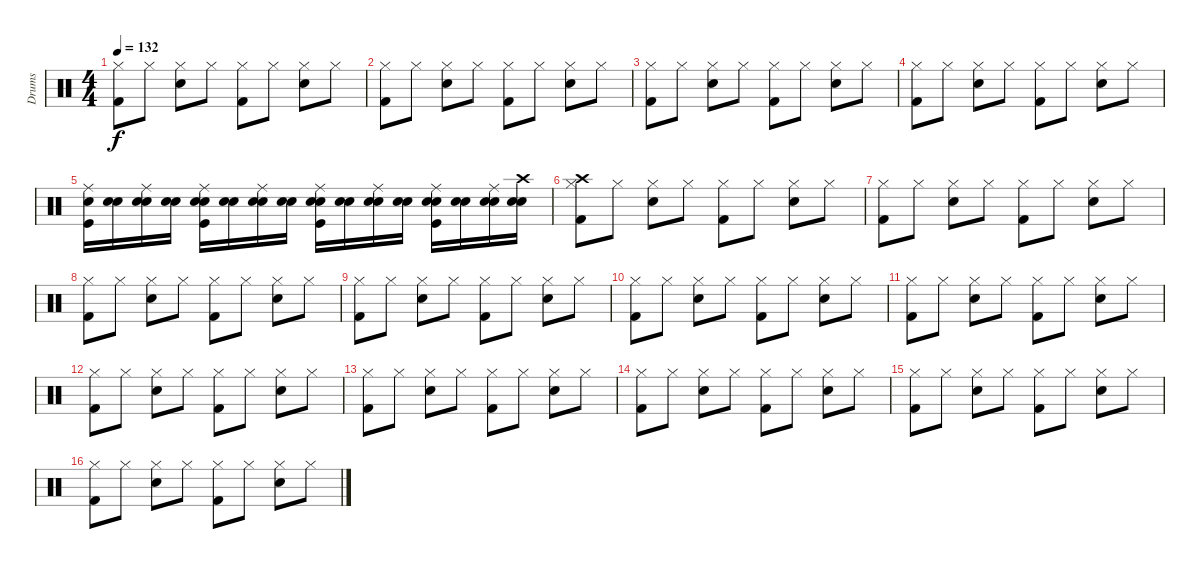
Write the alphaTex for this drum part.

\track ("Drums" "Drums") {instrument percussion}
\staff {score}
\articulation defaults
\ts (4 4)
\tempo 132
\clef neutral
\ks c
("Hi-Hat (closed)" "Kick (hit) 2").8{dy f} "Hi-Hat (closed)".8 ("Hi-Hat (closed)" "Snare (hit) 2").8 "Hi-Hat (closed)".8 ("Hi-Hat (closed)" "Kick (hit) 2").8 "Hi-Hat (closed)".8 ("Hi-Hat (closed)" "Snare (hit) 2").8 "Hi-Hat (closed)".8 |
("Hi-Hat (closed)" "Kick (hit) 2").8 "Hi-Hat (closed)".8 ("Hi-Hat (closed)" "Snare (hit) 2").8 "Hi-Hat (closed)".8 ("Hi-Hat (closed)" "Kick (hit) 2").8 "Hi-Hat (closed)".8 ("Hi-Hat (closed)" "Snare (hit) 2").8 "Hi-Hat (closed)".8 |
("Hi-Hat (closed)" "Kick (hit) 2").8 "Hi-Hat (closed)".8 ("Hi-Hat (closed)" "Snare (hit) 2").8 "Hi-Hat (closed)".8 ("Hi-Hat (closed)" "Kick (hit) 2").8 "Hi-Hat (closed)".8 ("Hi-Hat (closed)" "Snare (hit) 2").8 "Hi-Hat (closed)".8 |
("Hi-Hat (closed)" "Kick (hit) 2").8 "Hi-Hat (closed)".8 ("Hi-Hat (closed)" "Snare (hit) 2").8 "Hi-Hat (closed)".8 ("Hi-Hat (closed)" "Kick (hit) 2").8 "Hi-Hat (closed)".8 ("Hi-Hat (closed)" "Snare (hit) 2").8 "Hi-Hat (closed)".8 |
("Snare (hit) 2" "Kick (hit)" "Ride (middle)").16 ("Snare (hit)" "Snare (hit) 2").16 ("Snare (hit)" "Snare (hit) 2" "Ride (middle)").16 ("Snare (hit)" "Snare (hit) 2").16 ("Snare (hit)" "Snare (hit) 2" "Kick (hit)" "Ride (middle)").16 ("Snare (hit)" "Snare (hit) 2").16 ("Snare (hit)" "Snare (hit) 2" "Ride (middle)").16 ("Snare (hit)" "Snare (hit) 2").16 ("Snare (hit)" "Snare (hit) 2" "Kick (hit)" "Ride (middle)").16 ("Snare (hit)" "Snare (hit) 2").16 ("Snare (hit)" "Snare (hit) 2" "Ride (middle)").16 ("Snare (hit)" "Snare (hit) 2").16 ("Snare (hit)" "Snare (hit) 2" "Kick (hit)" "Ride (middle)").16 ("Snare (hit)" "Snare (hit) 2").16 ("Snare (hit)" "Snare (hit) 2" "Ride (middle)").16 ("Snare (hit)" "Snare (hit) 2" "Crash high (hit)").16 |
("Hi-Hat (closed)" "Crash high (hit)" "Kick (hit) 2").8 "Hi-Hat (closed)".8 ("Hi-Hat (closed)" "Snare (hit) 2").8 "Hi-Hat (closed)".8 ("Hi-Hat (closed)" "Kick (hit) 2").8 "Hi-Hat (closed)".8 ("Hi-Hat (closed)" "Snare (hit) 2").8 "Hi-Hat (closed)".8 |
("Hi-Hat (closed)" "Kick (hit) 2").8 "Hi-Hat (closed)".8 ("Hi-Hat (closed)" "Snare (hit) 2").8 "Hi-Hat (closed)".8 ("Hi-Hat (closed)" "Kick (hit) 2").8 "Hi-Hat (closed)".8 ("Hi-Hat (closed)" "Snare (hit) 2").8 "Hi-Hat (closed)".8 |
("Hi-Hat (closed)" "Kick (hit) 2").8 "Hi-Hat (closed)".8 ("Hi-Hat (closed)" "Snare (hit) 2").8 "Hi-Hat (closed)".8 ("Hi-Hat (closed)" "Kick (hit) 2").8 "Hi-Hat (closed)".8 ("Hi-Hat (closed)" "Snare (hit) 2").8 "Hi-Hat (closed)".8 |
("Hi-Hat (closed)" "Kick (hit) 2").8 "Hi-Hat (closed)".8 ("Hi-Hat (closed)" "Snare (hit) 2").8 "Hi-Hat (closed)".8 ("Hi-Hat (closed)" "Kick (hit) 2").8 "Hi-Hat (closed)".8 ("Hi-Hat (closed)" "Snare (hit) 2").8 "Hi-Hat (closed)".8 |
("Hi-Hat (closed)" "Kick (hit) 2").8 "Hi-Hat (closed)".8 ("Hi-Hat (closed)" "Snare (hit) 2").8 "Hi-Hat (closed)".8 ("Hi-Hat (closed)" "Kick (hit) 2").8 "Hi-Hat (closed)".8 ("Hi-Hat (closed)" "Snare (hit) 2").8 "Hi-Hat (closed)".8 |
("Hi-Hat (closed)" "Kick (hit) 2").8 "Hi-Hat (closed)".8 ("Hi-Hat (closed)" "Snare (hit) 2").8 "Hi-Hat (closed)".8 ("Hi-Hat (closed)" "Kick (hit) 2").8 "Hi-Hat (closed)".8 ("Hi-Hat (closed)" "Snare (hit) 2").8 "Hi-Hat (closed)".8 |
("Hi-Hat (closed)" "Kick (hit) 2").8 "Hi-Hat (closed)".8 ("Hi-Hat (closed)" "Snare (hit) 2").8 "Hi-Hat (closed)".8 ("Hi-Hat (closed)" "Kick (hit) 2").8 "Hi-Hat (closed)".8 ("Hi-Hat (closed)" "Snare (hit) 2").8 "Hi-Hat (closed)".8 |
("Hi-Hat (closed)" "Kick (hit) 2").8 "Hi-Hat (closed)".8 ("Hi-Hat (closed)" "Snare (hit) 2").8 "Hi-Hat (closed)".8 ("Hi-Hat (closed)" "Kick (hit) 2").8 "Hi-Hat (closed)".8 ("Hi-Hat (closed)" "Snare (hit) 2").8 "Hi-Hat (closed)".8 |
("Hi-Hat (closed)" "Kick (hit) 2").8 "Hi-Hat (closed)".8 ("Hi-Hat (closed)" "Snare (hit) 2").8 "Hi-Hat (closed)".8 ("Hi-Hat (closed)" "Kick (hit) 2").8 "Hi-Hat (closed)".8 ("Hi-Hat (closed)" "Snare (hit) 2").8 "Hi-Hat (closed)".8 |
("Hi-Hat (closed)" "Kick (hit) 2").8 "Hi-Hat (closed)".8 ("Hi-Hat (closed)" "Snare (hit) 2").8 "Hi-Hat (closed)".8 ("Hi-Hat (closed)" "Kick (hit) 2").8 "Hi-Hat (closed)".8 ("Hi-Hat (closed)" "Snare (hit) 2").8 "Hi-Hat (closed)".8 |
("Hi-Hat (closed)" "Kick (hit) 2").8 "Hi-Hat (closed)".8 ("Hi-Hat (closed)" "Snare (hit) 2").8 "Hi-Hat (closed)".8 ("Hi-Hat (closed)" "Kick (hit) 2").8 "Hi-Hat (closed)".8 ("Hi-Hat (closed)" "Snare (hit) 2").8 "Hi-Hat (closed)".8
